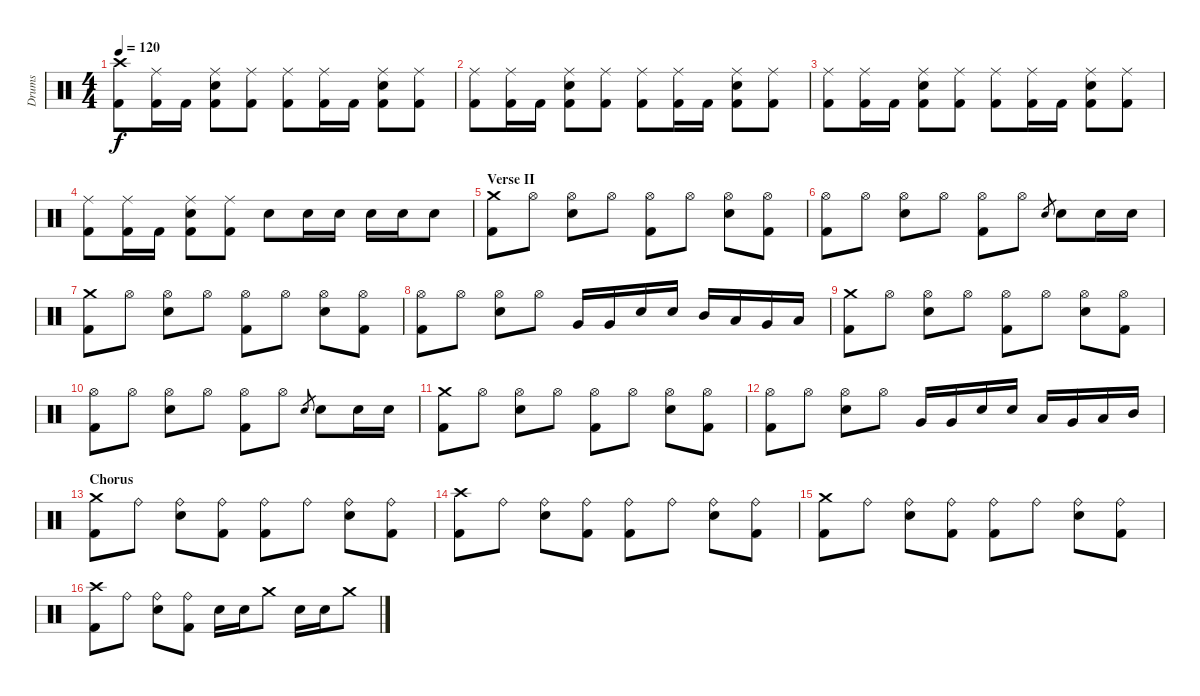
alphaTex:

\track ("Drums" "Drums") {instrument percussion}
\staff {score}
\articulation defaults
\ts (4 4)
\tempo 120
\clef neutral
\ks c
("Kick (hit) 2" "Crash high (hit)").8{dy f} ("Kick (hit) 2" "Ride (middle)").16 "Kick (hit) 2".16 ("Kick (hit) 2" "Snare (hit) 2" "Ride (middle)").8 ("Kick (hit) 2" "Ride (middle)").8 ("Kick (hit) 2" "Ride (middle)").8 ("Kick (hit) 2" "Ride (middle)").16 "Kick (hit) 2".16 ("Kick (hit) 2" "Snare (hit) 2" "Ride (middle)").8 ("Kick (hit) 2" "Ride (middle)").8 |
("Kick (hit) 2" "Ride (middle)").8 ("Kick (hit) 2" "Ride (middle)").16 "Kick (hit) 2".16 ("Kick (hit) 2" "Snare (hit) 2" "Ride (middle)").8 ("Kick (hit) 2" "Ride (middle)").8 ("Kick (hit) 2" "Ride (middle)").8 ("Kick (hit) 2" "Ride (middle)").16 "Kick (hit) 2".16 ("Kick (hit) 2" "Snare (hit) 2" "Ride (middle)").8 ("Kick (hit) 2" "Ride (middle)").8 |
("Kick (hit) 2" "Ride (middle)").8 ("Kick (hit) 2" "Ride (middle)").16 "Kick (hit) 2".16 ("Kick (hit) 2" "Snare (hit) 2" "Ride (middle)").8 ("Kick (hit) 2" "Ride (middle)").8 ("Kick (hit) 2" "Ride (middle)").8 ("Kick (hit) 2" "Ride (middle)").16 "Kick (hit) 2".16 ("Kick (hit) 2" "Snare (hit) 2" "Ride (middle)").8 ("Kick (hit) 2" "Ride (middle)").8 |
("Kick (hit) 2" "Ride (middle)").8 ("Kick (hit) 2" "Ride (middle)").16 "Kick (hit) 2".16 ("Kick (hit) 2" "Snare (hit) 2" "Ride (middle)").8 ("Kick (hit) 2" "Ride (middle)").8 "Snare (hit) 2".8 "Snare (hit) 2".16 "Snare (hit) 2".16 "Snare (hit) 2".16 "Snare (hit) 2".16 "Snare (hit) 2".8 |
\section ("" "Verse II")
("Kick (hit) 2" "Crash medium (hit)").8 "Hi-Hat (open)".8 ("Snare (hit) 2" "Hi-Hat (open)").8 "Hi-Hat (open)".8 ("Kick (hit) 2" "Hi-Hat (open)").8 "Hi-Hat (open)".8 ("Snare (hit) 2" "Hi-Hat (open)").8 ("Kick (hit) 2" "Hi-Hat (open)").8 |
("Kick (hit) 2" "Hi-Hat (open)").8 "Hi-Hat (open)".8 ("Snare (hit) 2" "Hi-Hat (open)").8 "Hi-Hat (open)".8 ("Kick (hit) 2" "Hi-Hat (open)").8 "Hi-Hat (open)".8 "Snare (hit) 2".8{gr} "Snare (hit) 2".8 "Snare (hit) 2".16 "Snare (hit) 2".16 |
("Kick (hit) 2" "Crash medium (hit)").8 "Hi-Hat (open)".8 ("Snare (hit) 2" "Hi-Hat (open)").8 "Hi-Hat (open)".8 ("Kick (hit) 2" "Hi-Hat (open)").8 "Hi-Hat (open)".8 ("Snare (hit) 2" "Hi-Hat (open)").8 ("Kick (hit) 2" "Hi-Hat (open)").8 |
("Kick (hit) 2" "Hi-Hat (open)").8 "Hi-Hat (open)".8 ("Snare (hit) 2" "Hi-Hat (open)").8 "Hi-Hat (open)".8 "Very Low Tom (hit)".16 "Very Low Tom (hit)".16 "Snare (hit) 2".16 "Snare (hit) 2".16 "Mid Tom (hit)".16 "Low Tom (hit)".16 "Very Low Tom (hit)".16 "Low Floor Tom (hit)".16 |
("Kick (hit) 2" "Crash medium (hit)").8 "Hi-Hat (open)".8 ("Snare (hit) 2" "Hi-Hat (open)").8 "Hi-Hat (open)".8 ("Kick (hit) 2" "Hi-Hat (open)").8 "Hi-Hat (open)".8 ("Snare (hit) 2" "Hi-Hat (open)").8 ("Kick (hit) 2" "Hi-Hat (open)").8 |
("Kick (hit) 2" "Hi-Hat (open)").8 "Hi-Hat (open)".8 ("Snare (hit) 2" "Hi-Hat (open)").8 "Hi-Hat (open)".8 ("Kick (hit) 2" "Hi-Hat (open)").8 "Hi-Hat (open)".8 "Snare (hit) 2".8{gr} "Snare (hit) 2".8 "Snare (hit) 2".16 "Snare (hit) 2".16 |
("Kick (hit) 2" "Crash medium (hit)").8 "Hi-Hat (open)".8 ("Snare (hit) 2" "Hi-Hat (open)").8 "Hi-Hat (open)".8 ("Kick (hit) 2" "Hi-Hat (open)").8 "Hi-Hat (open)".8 ("Snare (hit) 2" "Hi-Hat (open)").8 ("Kick (hit) 2" "Hi-Hat (open)").8 |
("Kick (hit) 2" "Hi-Hat (open)").8 "Hi-Hat (open)".8 ("Snare (hit) 2" "Hi-Hat (open)").8 "Hi-Hat (open)".8 "Very Low Tom (hit)".16 "Very Low Tom (hit)".16 "Snare (hit) 2".16 "Snare (hit) 2".16 "Low Floor Tom (hit)".16 "Very Low Tom (hit)".16 "Low Tom (hit)".16 "Mid Tom (hit)".16 |
\section ("" "Chorus")
("Kick (hit) 2" "Crash medium (hit)").8 "Ride (bell)".8 ("Snare (hit) 2" "Ride (bell)").8 ("Kick (hit) 2" "Ride (bell)").8 ("Kick (hit) 2" "Ride (bell)").8 "Ride (bell)".8 ("Snare (hit) 2" "Ride (bell)").8 ("Kick (hit) 2" "Ride (bell)").8 |
("Kick (hit) 2" "Crash high (hit)").8 "Ride (bell)".8 ("Snare (hit) 2" "Ride (bell)").8 ("Kick (hit) 2" "Ride (bell)").8 ("Kick (hit) 2" "Ride (bell)").8 "Ride (bell)".8 ("Snare (hit) 2" "Ride (bell)").8 ("Kick (hit) 2" "Ride (bell)").8 |
("Kick (hit) 2" "Crash medium (hit)").8 "Ride (bell)".8 ("Snare (hit) 2" "Ride (bell)").8 ("Kick (hit) 2" "Ride (bell)").8 ("Kick (hit) 2" "Ride (bell)").8 "Ride (bell)".8 ("Snare (hit) 2" "Ride (bell)").8 ("Kick (hit) 2" "Ride (bell)").8 |
("Kick (hit) 2" "Crash high (hit)").8 "Ride (bell)".8 ("Snare (hit) 2" "Ride (bell)").8 ("Kick (hit) 2" "Ride (bell)").8 "Snare (hit) 2".16 "Snare (hit) 2".16 "Crash medium (hit)".8 "Snare (hit) 2".16 "Snare (hit) 2".16 "Crash medium (hit)".8
